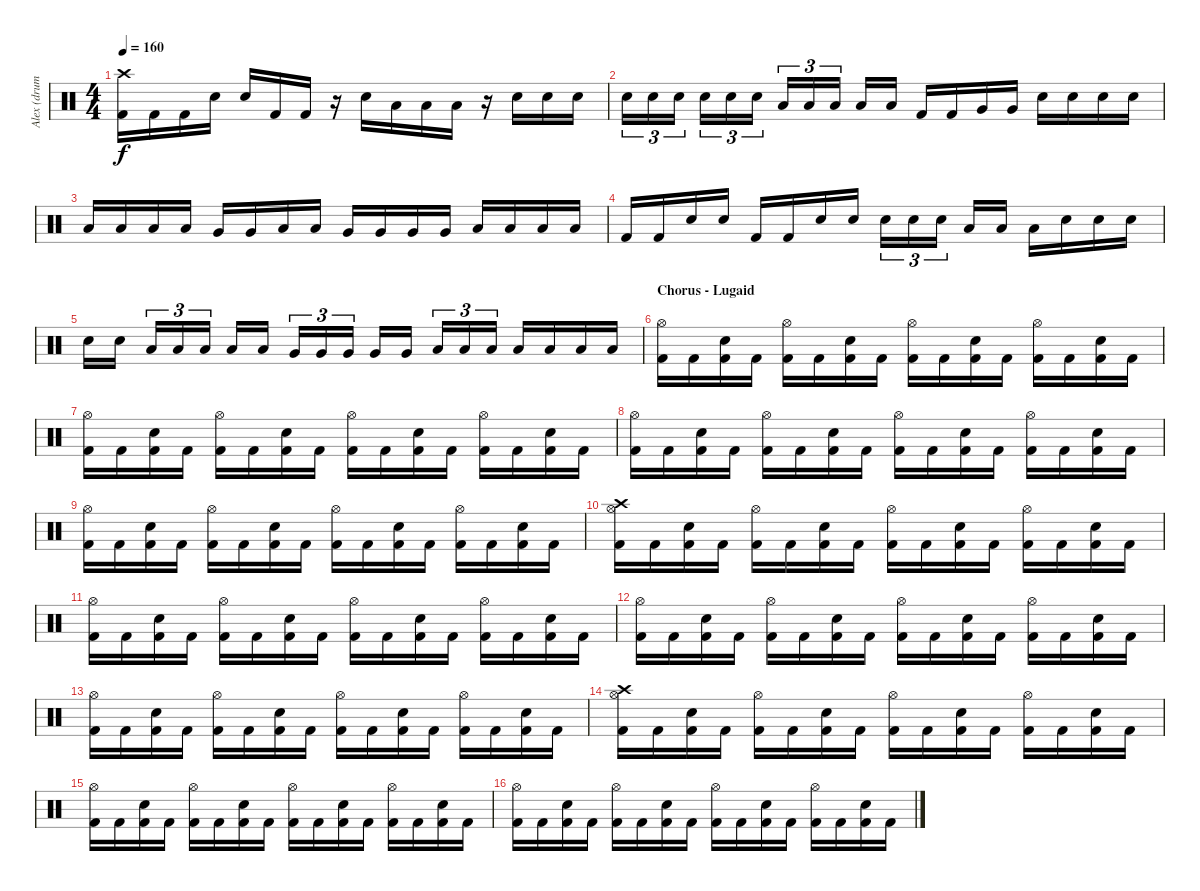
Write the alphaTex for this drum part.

\track ("Alex (drums)" "Alex (drum") {instrument percussion}
\staff {score}
\articulation defaults
\ts (4 4)
\tempo 160
\clef neutral
\ks c
("Kick (hit) 2" "Crash high (hit)").16{dy f} "Kick (hit) 2".16 "Kick (hit) 2".16 "Snare (hit) 2".16 "Snare (hit) 2".16 "Kick (hit) 2".16 "Kick (hit) 2".16 r.16 "Snare (hit) 2".16 "Low Tom (hit)".16 "Low Tom (hit)".16 "Low Tom (hit)".16 r.16 "Snare (hit) 2".16 "Snare (hit) 2".16 "Snare (hit) 2".16 |
"Snare (hit) 2".16{tu (3 2)} "Snare (hit) 2".16{tu (3 2)} "Snare (hit) 2".16{tu (3 2)} "Snare (hit) 2".16{tu (3 2)} "Snare (hit) 2".16{tu (3 2)} "Snare (hit) 2".16{tu (3 2)} "Low Tom (hit)".16{tu (3 2)} "Low Tom (hit)".16{tu (3 2)} "Low Tom (hit)".16{tu (3 2)} "Low Tom (hit)".16 "Low Tom (hit)".16 "Kick (hit) 2".16 "Kick (hit) 2".16 "Very Low Tom (hit)".16 "Very Low Tom (hit)".16 "Snare (hit) 2".16 "Snare (hit) 2".16 "Snare (hit) 2".16 "Snare (hit) 2".16 |
"Low Tom (hit)".16 "Low Tom (hit)".16 "Low Tom (hit)".16 "Low Tom (hit)".16 "Very Low Tom (hit)".16 "Very Low Tom (hit)".16 "Low Tom (hit)".16 "Low Tom (hit)".16 "Very Low Tom (hit)".16 "Very Low Tom (hit)".16 "Very Low Tom (hit)".16 "Very Low Tom (hit)".16 "Low Tom (hit)".16 "Low Tom (hit)".16 "Low Tom (hit)".16 "Low Tom (hit)".16 |
"Kick (hit) 2".16 "Kick (hit) 2".16 "Snare (hit) 2".16 "Snare (hit) 2".16 "Kick (hit) 2".16 "Kick (hit) 2".16 "Snare (hit) 2".16 "Snare (hit) 2".16 "Snare (hit) 2".16{tu (3 2)} "Snare (hit) 2".16{tu (3 2)} "Snare (hit) 2".16{tu (3 2)} "Low Tom (hit)".16 "Low Tom (hit)".16 "Low Tom (hit)".16 "Snare (hit) 2".16 "Snare (hit) 2".16 "Snare (hit) 2".16 |
"Snare (hit) 2".16 "Snare (hit) 2".16 "Low Tom (hit)".16{tu (3 2)} "Low Tom (hit)".16{tu (3 2)} "Low Tom (hit)".16{tu (3 2)} "Low Tom (hit)".16 "Low Tom (hit)".16 "Very Low Tom (hit)".16{tu (3 2)} "Very Low Tom (hit)".16{tu (3 2)} "Very Low Tom (hit)".16{tu (3 2)} "Very Low Tom (hit)".16 "Very Low Tom (hit)".16 "Low Floor Tom (hit)".16{tu (3 2)} "Low Floor Tom (hit)".16{tu (3 2)} "Low Floor Tom (hit)".16{tu (3 2)} "Low Floor Tom (hit)".16 "Low Floor Tom (hit)".16 "Low Floor Tom (hit)".16 "Low Floor Tom (hit)".16 |
\section ("" "Chorus - Lugaid")
("Hi-Hat (open)" "Kick (hit) 2").16 "Kick (hit) 2".16 ("Snare (hit) 2" "Kick (hit) 2").16 "Kick (hit) 2".16 ("Hi-Hat (open)" "Kick (hit) 2").16 "Kick (hit) 2".16 ("Snare (hit) 2" "Kick (hit) 2").16 "Kick (hit) 2".16 ("Hi-Hat (open)" "Kick (hit) 2").16 "Kick (hit) 2".16 ("Snare (hit) 2" "Kick (hit) 2").16 "Kick (hit) 2".16 ("Hi-Hat (open)" "Kick (hit) 2").16 "Kick (hit) 2".16 ("Snare (hit) 2" "Kick (hit) 2").16 "Kick (hit) 2".16 |
("Hi-Hat (open)" "Kick (hit) 2").16 "Kick (hit) 2".16 ("Snare (hit) 2" "Kick (hit) 2").16 "Kick (hit) 2".16 ("Hi-Hat (open)" "Kick (hit) 2").16 "Kick (hit) 2".16 ("Snare (hit) 2" "Kick (hit) 2").16 "Kick (hit) 2".16 ("Hi-Hat (open)" "Kick (hit) 2").16 "Kick (hit) 2".16 ("Snare (hit) 2" "Kick (hit) 2").16 "Kick (hit) 2".16 ("Hi-Hat (open)" "Kick (hit) 2").16 "Kick (hit) 2".16 ("Snare (hit) 2" "Kick (hit) 2").16 "Kick (hit) 2".16 |
("Hi-Hat (open)" "Kick (hit) 2").16 "Kick (hit) 2".16 ("Snare (hit) 2" "Kick (hit) 2").16 "Kick (hit) 2".16 ("Hi-Hat (open)" "Kick (hit) 2").16 "Kick (hit) 2".16 ("Snare (hit) 2" "Kick (hit) 2").16 "Kick (hit) 2".16 ("Hi-Hat (open)" "Kick (hit) 2").16 "Kick (hit) 2".16 ("Snare (hit) 2" "Kick (hit) 2").16 "Kick (hit) 2".16 ("Hi-Hat (open)" "Kick (hit) 2").16 "Kick (hit) 2".16 ("Snare (hit) 2" "Kick (hit) 2").16 "Kick (hit) 2".16 |
("Hi-Hat (open)" "Kick (hit) 2").16 "Kick (hit) 2".16 ("Snare (hit) 2" "Kick (hit) 2").16 "Kick (hit) 2".16 ("Hi-Hat (open)" "Kick (hit) 2").16 "Kick (hit) 2".16 ("Snare (hit) 2" "Kick (hit) 2").16 "Kick (hit) 2".16 ("Hi-Hat (open)" "Kick (hit) 2").16 "Kick (hit) 2".16 ("Snare (hit) 2" "Kick (hit) 2").16 "Kick (hit) 2".16 ("Hi-Hat (open)" "Kick (hit) 2").16 "Kick (hit) 2".16 ("Snare (hit) 2" "Kick (hit) 2").16 "Kick (hit) 2".16 |
("Hi-Hat (open)" "Kick (hit) 2" "Crash high (hit)").16 "Kick (hit) 2".16 ("Snare (hit) 2" "Kick (hit) 2").16 "Kick (hit) 2".16 ("Hi-Hat (open)" "Kick (hit) 2").16 "Kick (hit) 2".16 ("Snare (hit) 2" "Kick (hit) 2").16 "Kick (hit) 2".16 ("Hi-Hat (open)" "Kick (hit) 2").16 "Kick (hit) 2".16 ("Snare (hit) 2" "Kick (hit) 2").16 "Kick (hit) 2".16 ("Hi-Hat (open)" "Kick (hit) 2").16 "Kick (hit) 2".16 ("Snare (hit) 2" "Kick (hit) 2").16 "Kick (hit) 2".16 |
("Hi-Hat (open)" "Kick (hit) 2").16 "Kick (hit) 2".16 ("Snare (hit) 2" "Kick (hit) 2").16 "Kick (hit) 2".16 ("Hi-Hat (open)" "Kick (hit) 2").16 "Kick (hit) 2".16 ("Snare (hit) 2" "Kick (hit) 2").16 "Kick (hit) 2".16 ("Hi-Hat (open)" "Kick (hit) 2").16 "Kick (hit) 2".16 ("Snare (hit) 2" "Kick (hit) 2").16 "Kick (hit) 2".16 ("Hi-Hat (open)" "Kick (hit) 2").16 "Kick (hit) 2".16 ("Snare (hit) 2" "Kick (hit) 2").16 "Kick (hit) 2".16 |
("Hi-Hat (open)" "Kick (hit) 2").16 "Kick (hit) 2".16 ("Snare (hit) 2" "Kick (hit) 2").16 "Kick (hit) 2".16 ("Hi-Hat (open)" "Kick (hit) 2").16 "Kick (hit) 2".16 ("Snare (hit) 2" "Kick (hit) 2").16 "Kick (hit) 2".16 ("Hi-Hat (open)" "Kick (hit) 2").16 "Kick (hit) 2".16 ("Snare (hit) 2" "Kick (hit) 2").16 "Kick (hit) 2".16 ("Hi-Hat (open)" "Kick (hit) 2").16 "Kick (hit) 2".16 ("Snare (hit) 2" "Kick (hit) 2").16 "Kick (hit) 2".16 |
("Hi-Hat (open)" "Kick (hit) 2").16 "Kick (hit) 2".16 ("Snare (hit) 2" "Kick (hit) 2").16 "Kick (hit) 2".16 ("Hi-Hat (open)" "Kick (hit) 2").16 "Kick (hit) 2".16 ("Snare (hit) 2" "Kick (hit) 2").16 "Kick (hit) 2".16 ("Hi-Hat (open)" "Kick (hit) 2").16 "Kick (hit) 2".16 ("Snare (hit) 2" "Kick (hit) 2").16 "Kick (hit) 2".16 ("Hi-Hat (open)" "Kick (hit) 2").16 "Kick (hit) 2".16 ("Snare (hit) 2" "Kick (hit) 2").16 "Kick (hit) 2".16 |
("Hi-Hat (open)" "Kick (hit) 2" "Crash high (hit)").16 "Kick (hit) 2".16 ("Snare (hit) 2" "Kick (hit) 2").16 "Kick (hit) 2".16 ("Hi-Hat (open)" "Kick (hit) 2").16 "Kick (hit) 2".16 ("Snare (hit) 2" "Kick (hit) 2").16 "Kick (hit) 2".16 ("Hi-Hat (open)" "Kick (hit) 2").16 "Kick (hit) 2".16 ("Snare (hit) 2" "Kick (hit) 2").16 "Kick (hit) 2".16 ("Hi-Hat (open)" "Kick (hit) 2").16 "Kick (hit) 2".16 ("Snare (hit) 2" "Kick (hit) 2").16 "Kick (hit) 2".16 |
("Hi-Hat (open)" "Kick (hit) 2").16 "Kick (hit) 2".16 ("Snare (hit) 2" "Kick (hit) 2").16 "Kick (hit) 2".16 ("Hi-Hat (open)" "Kick (hit) 2").16 "Kick (hit) 2".16 ("Snare (hit) 2" "Kick (hit) 2").16 "Kick (hit) 2".16 ("Hi-Hat (open)" "Kick (hit) 2").16 "Kick (hit) 2".16 ("Snare (hit) 2" "Kick (hit) 2").16 "Kick (hit) 2".16 ("Hi-Hat (open)" "Kick (hit) 2").16 "Kick (hit) 2".16 ("Snare (hit) 2" "Kick (hit) 2").16 "Kick (hit) 2".16 |
("Hi-Hat (open)" "Kick (hit) 2").16 "Kick (hit) 2".16 ("Snare (hit) 2" "Kick (hit) 2").16 "Kick (hit) 2".16 ("Hi-Hat (open)" "Kick (hit) 2").16 "Kick (hit) 2".16 ("Snare (hit) 2" "Kick (hit) 2").16 "Kick (hit) 2".16 ("Hi-Hat (open)" "Kick (hit) 2").16 "Kick (hit) 2".16 ("Snare (hit) 2" "Kick (hit) 2").16 "Kick (hit) 2".16 ("Hi-Hat (open)" "Kick (hit) 2").16 "Kick (hit) 2".16 ("Snare (hit) 2" "Kick (hit) 2").16 "Kick (hit) 2".16
